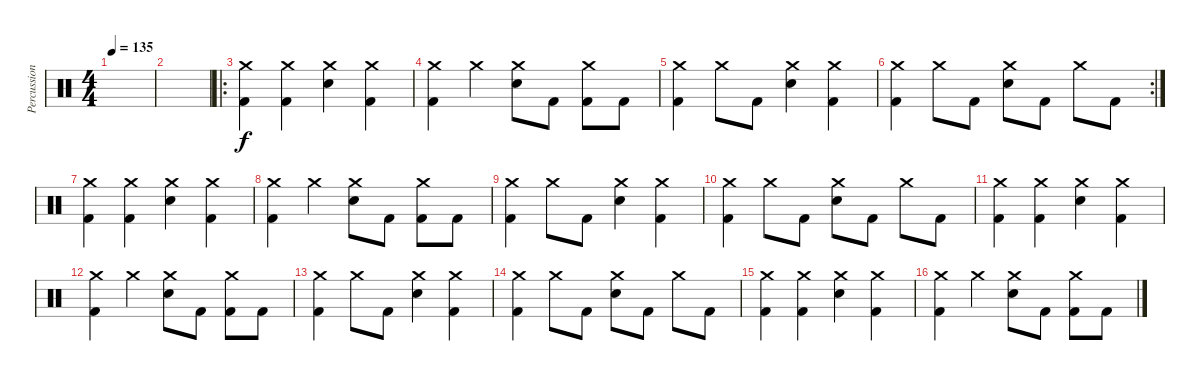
\track ("Percussion" "Percussion") {instrument percussion}
\staff {score}
\articulation defaults
\ts (4 4)
\tempo 135
\clef neutral
\ks c
|
|
\ro
("Crash medium (hit)" "Kick (hit) 2").4 ("Crash medium (hit)" "Kick (hit) 2").4 ("Crash medium (hit)" "Electric Snare (hit)").4 ("Crash medium (hit)" "Kick (hit) 2").4 |
("Crash medium (hit)" "Kick (hit) 2").4 "Crash medium (hit)".4 ("Crash medium (hit)" "Electric Snare (hit)").8 "Kick (hit) 2".8 ("Crash medium (hit)" "Kick (hit) 2").8 "Kick (hit) 2".8 |
("Crash medium (hit)" "Kick (hit) 2").4 "Crash medium (hit)".8 "Kick (hit) 2".8 ("Crash medium (hit)" "Electric Snare (hit)").4 ("Crash medium (hit)" "Kick (hit) 2").4 |
\rc 2
("Crash medium (hit)" "Kick (hit) 2").4 "Crash medium (hit)".8 "Kick (hit) 2".8 ("Crash medium (hit)" "Electric Snare (hit)").8 "Kick (hit) 2".8 "Crash medium (hit)".8 "Kick (hit) 2".8 |
("Crash medium (hit)" "Kick (hit) 2").4 ("Crash medium (hit)" "Kick (hit) 2").4 ("Crash medium (hit)" "Electric Snare (hit)").4 ("Crash medium (hit)" "Kick (hit) 2").4 |
("Crash medium (hit)" "Kick (hit) 2").4 "Crash medium (hit)".4 ("Crash medium (hit)" "Electric Snare (hit)").8 "Kick (hit) 2".8 ("Crash medium (hit)" "Kick (hit) 2").8 "Kick (hit) 2".8 |
("Crash medium (hit)" "Kick (hit) 2").4 "Crash medium (hit)".8 "Kick (hit) 2".8 ("Crash medium (hit)" "Electric Snare (hit)").4 ("Crash medium (hit)" "Kick (hit) 2").4 |
("Crash medium (hit)" "Kick (hit) 2").4 "Crash medium (hit)".8 "Kick (hit) 2".8 ("Crash medium (hit)" "Electric Snare (hit)").8 "Kick (hit) 2".8 "Crash medium (hit)".8 "Kick (hit) 2".8 |
("Crash medium (hit)" "Kick (hit) 2").4 ("Crash medium (hit)" "Kick (hit) 2").4 ("Crash medium (hit)" "Electric Snare (hit)").4 ("Crash medium (hit)" "Kick (hit) 2").4 |
("Crash medium (hit)" "Kick (hit) 2").4 "Crash medium (hit)".4 ("Crash medium (hit)" "Electric Snare (hit)").8 "Kick (hit) 2".8 ("Crash medium (hit)" "Kick (hit) 2").8 "Kick (hit) 2".8 |
("Crash medium (hit)" "Kick (hit) 2").4 "Crash medium (hit)".8 "Kick (hit) 2".8 ("Crash medium (hit)" "Electric Snare (hit)").4 ("Crash medium (hit)" "Kick (hit) 2").4 |
("Crash medium (hit)" "Kick (hit) 2").4 "Crash medium (hit)".8 "Kick (hit) 2".8 ("Crash medium (hit)" "Electric Snare (hit)").8 "Kick (hit) 2".8 "Crash medium (hit)".8 "Kick (hit) 2".8 |
("Crash medium (hit)" "Kick (hit) 2").4 ("Crash medium (hit)" "Kick (hit) 2").4 ("Crash medium (hit)" "Electric Snare (hit)").4 ("Crash medium (hit)" "Kick (hit) 2").4 |
("Crash medium (hit)" "Kick (hit) 2").4 "Crash medium (hit)".4 ("Crash medium (hit)" "Electric Snare (hit)").8 "Kick (hit) 2".8 ("Crash medium (hit)" "Kick (hit) 2").8 "Kick (hit) 2".8
